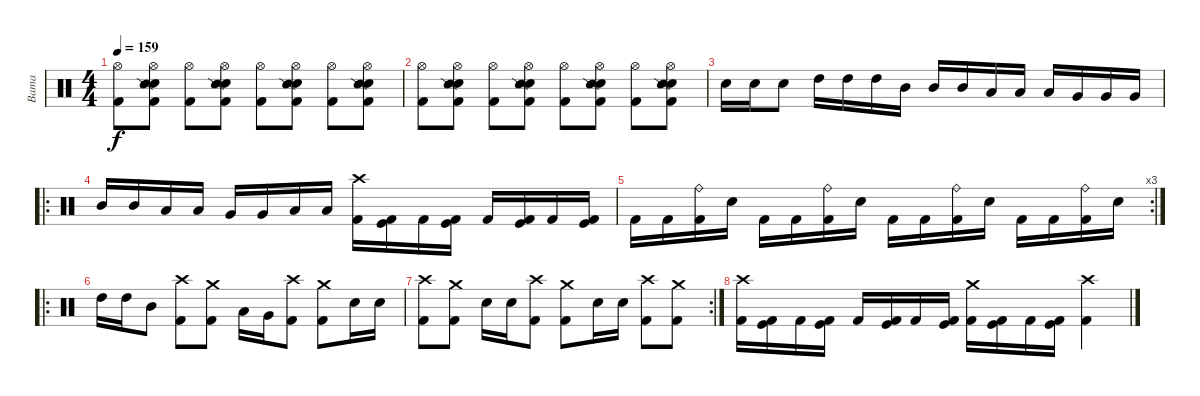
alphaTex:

\track ("Bama" "Bama") {instrument percussion}
\staff {score}
\articulation defaults
\ts (4 4)
\tempo 159
\clef neutral
\ks c
("Hi-Hat (open)" "Kick (hit) 2").8{dy f} ("Hi-Hat (open)" "Electric Snare (hit)" "Snare (side stick) 2" "Kick (hit) 2").8 ("Hi-Hat (open)" "Kick (hit) 2").8 ("Hi-Hat (open)" "Electric Snare (hit)" "Snare (side stick) 2" "Kick (hit) 2").8 ("Hi-Hat (open)" "Kick (hit) 2").8 ("Hi-Hat (open)" "Electric Snare (hit)" "Snare (side stick) 2" "Kick (hit) 2").8 ("Hi-Hat (open)" "Kick (hit) 2").8 ("Hi-Hat (open)" "Electric Snare (hit)" "Snare (side stick) 2" "Kick (hit) 2").8 |
("Hi-Hat (open)" "Kick (hit) 2").8 ("Hi-Hat (open)" "Electric Snare (hit)" "Snare (side stick) 2" "Kick (hit) 2").8 ("Hi-Hat (open)" "Kick (hit) 2").8 ("Hi-Hat (open)" "Electric Snare (hit)" "Snare (side stick) 2" "Kick (hit) 2").8 ("Hi-Hat (open)" "Kick (hit) 2").8 ("Hi-Hat (open)" "Electric Snare (hit)" "Snare (side stick) 2" "Kick (hit) 2").8 ("Hi-Hat (open)" "Kick (hit) 2").8 ("Hi-Hat (open)" "Electric Snare (hit)" "Snare (side stick) 2" "Kick (hit) 2").8 |
"Electric Snare (hit)".16 "Electric Snare (hit)".16 "Electric Snare (hit)".8 "High Tom (hit)".16 "High Tom (hit)".16 "High Tom (hit)".16 "Mid Tom (hit)".16 "Mid Tom (hit)".16 "Mid Tom (hit)".16 "Low Tom (hit)".16 "Low Tom (hit)".16 "Low Tom (hit)".16 "Very Low Tom (hit)".16 "Very Low Tom (hit)".16 "Very Low Tom (hit)".16 |
\ro "Mid Tom (hit)".16 "Mid Tom (hit)".16 "Low Tom (hit)".16 "Low Tom (hit)".16 "Very Low Tom (hit)".16 "Very Low Tom (hit)".16 "Low Floor Tom (hit)".16 "Low Floor Tom (hit)".16
("Crash high (hit)" "Kick (hit) 2").16 ("Kick (hit)" "Kick (hit) 2").16 "Kick (hit) 2".16 ("Kick (hit)" "Kick (hit) 2").16 "Kick (hit) 2".16 ("Kick (hit)" "Kick (hit) 2").16 "Kick (hit) 2".16 ("Kick (hit)" "Kick (hit) 2").16 |
\rc 3 "Kick (hit) 2".16 "Kick (hit) 2".16
("Ride (bell)" "Kick (hit) 2").16 "Electric Snare (hit)".16 "Kick (hit) 2".16 "Kick (hit) 2".16 ("Ride (bell)" "Kick (hit) 2").16 "Electric Snare (hit)".16 "Kick (hit) 2".16 "Kick (hit) 2".16 ("Ride (bell)" "Kick (hit) 2").16 "Electric Snare (hit)".16 "Kick (hit) 2".16 "Kick (hit) 2".16 ("Ride (bell)" "Kick (hit) 2").16 "Electric Snare (hit)".16 |
\ro "High Tom (hit)".16 "High Tom (hit)".16 "Mid Tom (hit)".8
("Crash high (hit)" "Kick (hit) 2").8 ("Crash medium (hit)" "Kick (hit) 2").8 "Low Tom (hit)".16 "Very Low Tom (hit)".16 ("Crash high (hit)" "Kick (hit) 2").8 ("Crash medium (hit)" "Kick (hit) 2").8 "Electric Snare (hit)".16 "Electric Snare (hit)".16 |
\rc 2
("Crash high (hit)" "Kick (hit) 2").8 ("Crash medium (hit)" "Kick (hit) 2").8 "Electric Snare (hit)".16 "Electric Snare (hit)".16 ("Crash high (hit)" "Kick (hit) 2").8 ("Crash medium (hit)" "Kick (hit) 2").8 "Electric Snare (hit)".16 "Electric Snare (hit)".16 ("Crash high (hit)" "Kick (hit) 2").8 ("Crash medium (hit)" "Kick (hit) 2").8 |
("Crash high (hit)" "Kick (hit) 2").16 ("Kick (hit)" "Kick (hit) 2").16 "Kick (hit) 2".16 ("Kick (hit)" "Kick (hit) 2").16 "Kick (hit) 2".16 ("Kick (hit)" "Kick (hit) 2").16 "Kick (hit) 2".16 ("Kick (hit)" "Kick (hit) 2").16 ("Crash medium (hit)" "Kick (hit) 2").16 ("Kick (hit)" "Kick (hit) 2").16 "Kick (hit) 2".16 ("Kick (hit)" "Kick (hit) 2").16 ("Crash high (hit)" "Kick (hit) 2").4
